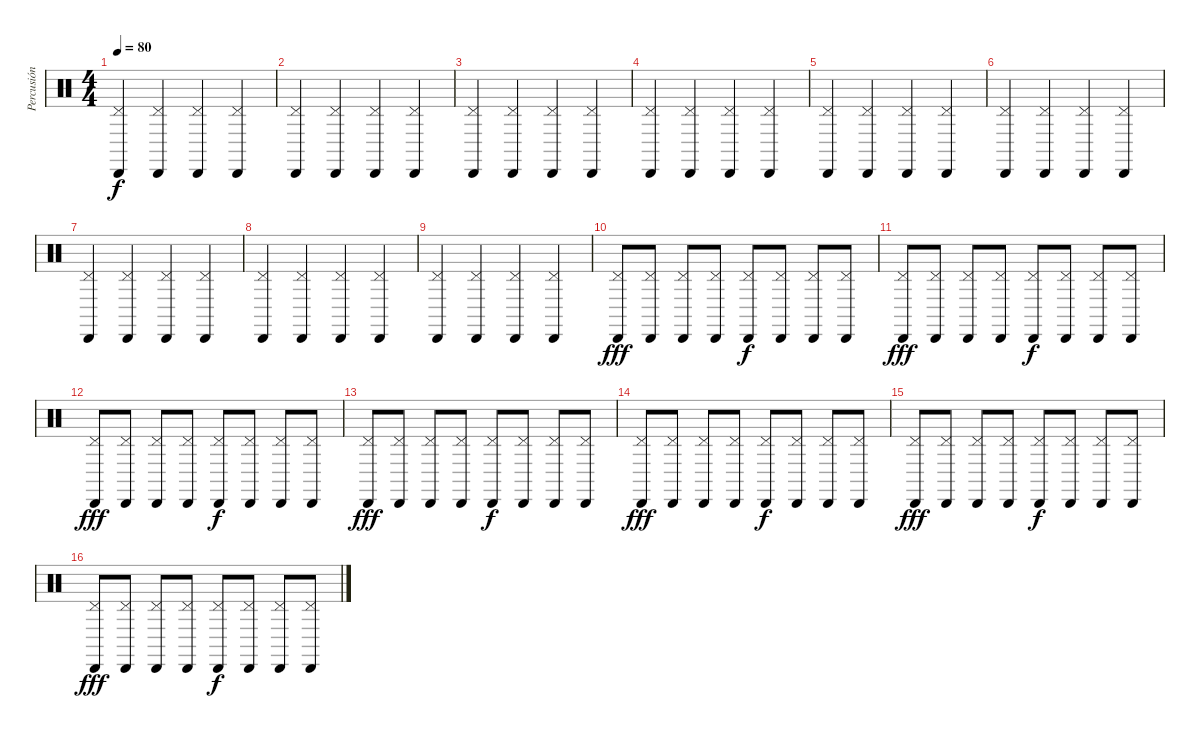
\track ("Percusión" "Percusión") {instrument percussion}
\staff {score}
\articulation defaults
\ts (4 4)
\tempo 80
\clef neutral
\ks c
("Cabasa (hit)" "Pedal Hi-Hat (hit)").4{dy f} ("Cabasa (hit)" "Pedal Hi-Hat (hit)").4 ("Cabasa (hit)" "Pedal Hi-Hat (hit)").4 ("Cabasa (hit)" "Pedal Hi-Hat (hit)").4 |
("Cabasa (hit)" "Pedal Hi-Hat (hit)").4 ("Cabasa (hit)" "Pedal Hi-Hat (hit)").4 ("Cabasa (hit)" "Pedal Hi-Hat (hit)").4 ("Cabasa (hit)" "Pedal Hi-Hat (hit)").4 |
("Cabasa (hit)" "Pedal Hi-Hat (hit)").4 ("Cabasa (hit)" "Pedal Hi-Hat (hit)").4 ("Cabasa (hit)" "Pedal Hi-Hat (hit)").4 ("Cabasa (hit)" "Pedal Hi-Hat (hit)").4 |
("Cabasa (hit)" "Pedal Hi-Hat (hit)").4 ("Cabasa (hit)" "Pedal Hi-Hat (hit)").4 ("Cabasa (hit)" "Pedal Hi-Hat (hit)").4 ("Cabasa (hit)" "Pedal Hi-Hat (hit)").4 |
("Cabasa (hit)" "Pedal Hi-Hat (hit)").4 ("Cabasa (hit)" "Pedal Hi-Hat (hit)").4 ("Cabasa (hit)" "Pedal Hi-Hat (hit)").4 ("Cabasa (hit)" "Pedal Hi-Hat (hit)").4 |
("Cabasa (hit)" "Pedal Hi-Hat (hit)").4 ("Cabasa (hit)" "Pedal Hi-Hat (hit)").4 ("Cabasa (hit)" "Pedal Hi-Hat (hit)").4 ("Cabasa (hit)" "Pedal Hi-Hat (hit)").4 |
("Cabasa (hit)" "Pedal Hi-Hat (hit)").4 ("Cabasa (hit)" "Pedal Hi-Hat (hit)").4 ("Cabasa (hit)" "Pedal Hi-Hat (hit)").4 ("Cabasa (hit)" "Pedal Hi-Hat (hit)").4 |
("Cabasa (hit)" "Pedal Hi-Hat (hit)").4 ("Cabasa (hit)" "Pedal Hi-Hat (hit)").4 ("Cabasa (hit)" "Pedal Hi-Hat (hit)").4 ("Cabasa (hit)" "Pedal Hi-Hat (hit)").4 |
("Cabasa (hit)" "Pedal Hi-Hat (hit)").4 ("Cabasa (hit)" "Pedal Hi-Hat (hit)").4 ("Cabasa (hit)" "Pedal Hi-Hat (hit)").4 ("Cabasa (hit)" "Pedal Hi-Hat (hit)").4 |
("Cabasa (hit)" "Pedal Hi-Hat (hit)").8{dy fff} ("Cabasa (hit)" "Pedal Hi-Hat (hit)").8 ("Cabasa (hit)" "Pedal Hi-Hat (hit)").8 ("Cabasa (hit)" "Pedal Hi-Hat (hit)").8 ("Cabasa (hit)" "Pedal Hi-Hat (hit)").8{dy f} ("Cabasa (hit)" "Pedal Hi-Hat (hit)").8 ("Cabasa (hit)" "Pedal Hi-Hat (hit)").8 ("Cabasa (hit)" "Pedal Hi-Hat (hit)").8 |
("Cabasa (hit)" "Pedal Hi-Hat (hit)").8{dy fff} ("Cabasa (hit)" "Pedal Hi-Hat (hit)").8 ("Cabasa (hit)" "Pedal Hi-Hat (hit)").8 ("Cabasa (hit)" "Pedal Hi-Hat (hit)").8 ("Cabasa (hit)" "Pedal Hi-Hat (hit)").8{dy f} ("Cabasa (hit)" "Pedal Hi-Hat (hit)").8 ("Cabasa (hit)" "Pedal Hi-Hat (hit)").8 ("Cabasa (hit)" "Pedal Hi-Hat (hit)").8 |
("Cabasa (hit)" "Pedal Hi-Hat (hit)").8{dy fff} ("Cabasa (hit)" "Pedal Hi-Hat (hit)").8 ("Cabasa (hit)" "Pedal Hi-Hat (hit)").8 ("Cabasa (hit)" "Pedal Hi-Hat (hit)").8 ("Cabasa (hit)" "Pedal Hi-Hat (hit)").8{dy f} ("Cabasa (hit)" "Pedal Hi-Hat (hit)").8 ("Cabasa (hit)" "Pedal Hi-Hat (hit)").8 ("Cabasa (hit)" "Pedal Hi-Hat (hit)").8 |
("Cabasa (hit)" "Pedal Hi-Hat (hit)").8{dy fff} ("Cabasa (hit)" "Pedal Hi-Hat (hit)").8 ("Cabasa (hit)" "Pedal Hi-Hat (hit)").8 ("Cabasa (hit)" "Pedal Hi-Hat (hit)").8 ("Cabasa (hit)" "Pedal Hi-Hat (hit)").8{dy f} ("Cabasa (hit)" "Pedal Hi-Hat (hit)").8 ("Cabasa (hit)" "Pedal Hi-Hat (hit)").8 ("Cabasa (hit)" "Pedal Hi-Hat (hit)").8 |
("Cabasa (hit)" "Pedal Hi-Hat (hit)").8{dy fff} ("Cabasa (hit)" "Pedal Hi-Hat (hit)").8 ("Cabasa (hit)" "Pedal Hi-Hat (hit)").8 ("Cabasa (hit)" "Pedal Hi-Hat (hit)").8 ("Cabasa (hit)" "Pedal Hi-Hat (hit)").8{dy f} ("Cabasa (hit)" "Pedal Hi-Hat (hit)").8 ("Cabasa (hit)" "Pedal Hi-Hat (hit)").8 ("Cabasa (hit)" "Pedal Hi-Hat (hit)").8 |
("Cabasa (hit)" "Pedal Hi-Hat (hit)").8{dy fff} ("Cabasa (hit)" "Pedal Hi-Hat (hit)").8 ("Cabasa (hit)" "Pedal Hi-Hat (hit)").8 ("Cabasa (hit)" "Pedal Hi-Hat (hit)").8 ("Cabasa (hit)" "Pedal Hi-Hat (hit)").8{dy f} ("Cabasa (hit)" "Pedal Hi-Hat (hit)").8 ("Cabasa (hit)" "Pedal Hi-Hat (hit)").8 ("Cabasa (hit)" "Pedal Hi-Hat (hit)").8 |
("Cabasa (hit)" "Pedal Hi-Hat (hit)").8{dy fff} ("Cabasa (hit)" "Pedal Hi-Hat (hit)").8 ("Cabasa (hit)" "Pedal Hi-Hat (hit)").8 ("Cabasa (hit)" "Pedal Hi-Hat (hit)").8 ("Cabasa (hit)" "Pedal Hi-Hat (hit)").8{dy f} ("Cabasa (hit)" "Pedal Hi-Hat (hit)").8 ("Cabasa (hit)" "Pedal Hi-Hat (hit)").8 ("Cabasa (hit)" "Pedal Hi-Hat (hit)").8
